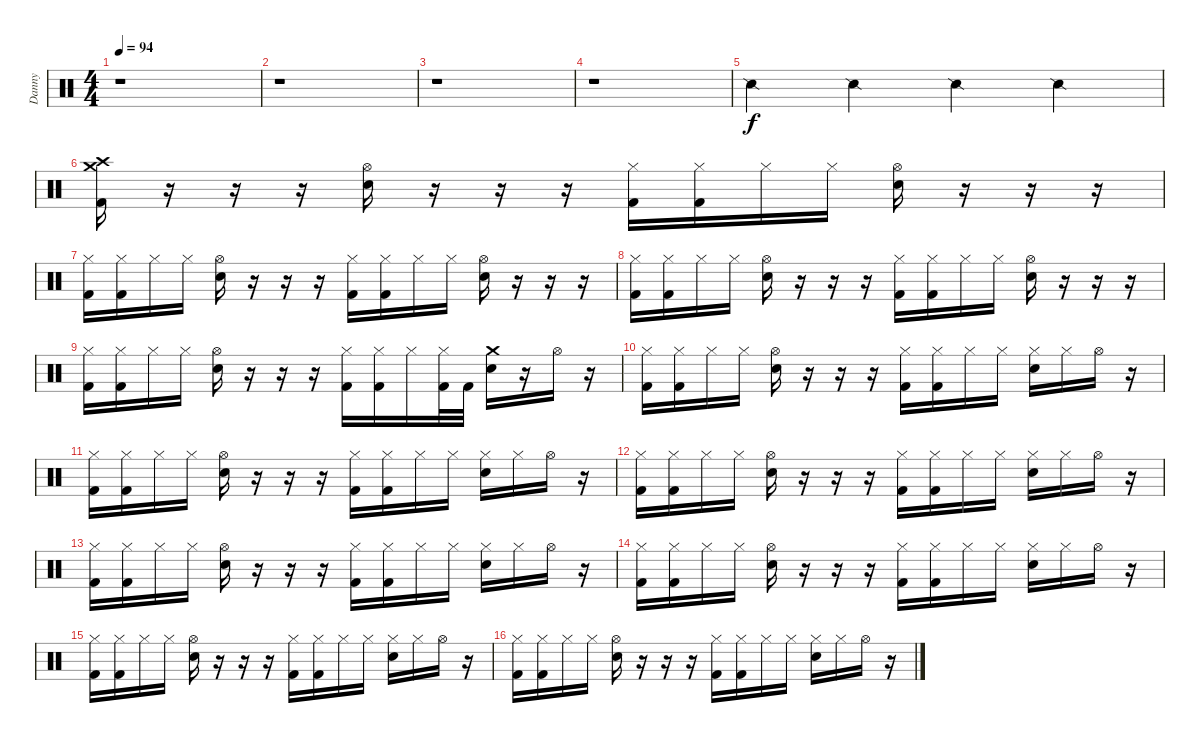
\track ("Danny" "Danny") {instrument percussion}
\staff {score}
\articulation defaults
\ts (4 4)
\tempo 94
\clef neutral
\ks c
r.1{dy f} |
r.1 |
r.1 |
r.1 |
"Snare (side stick) 2".4 "Snare (side stick) 2".4 "Snare (side stick) 2".4 "Snare (side stick) 2".4 |
("Crash medium (hit)" "Crash high (hit)" "Kick (hit) 2").16 r.16 r.16 r.16 ("Hi-Hat (open)" "Electric Snare (hit)").16 r.16 r.16 r.16 ("Hi-Hat (closed)" "Kick (hit) 2").16 ("Hi-Hat (closed)" "Kick (hit) 2").16 "Hi-Hat (closed)".16 "Hi-Hat (closed)".16 ("Hi-Hat (open)" "Electric Snare (hit)").16 r.16 r.16 r.16 |
("Hi-Hat (closed)" "Kick (hit) 2").16 ("Hi-Hat (closed)" "Kick (hit) 2").16 "Hi-Hat (closed)".16 "Hi-Hat (closed)".16 ("Hi-Hat (open)" "Electric Snare (hit)").16 r.16 r.16 r.16 ("Hi-Hat (closed)" "Kick (hit) 2").16 ("Hi-Hat (closed)" "Kick (hit) 2").16 "Hi-Hat (closed)".16 "Hi-Hat (closed)".16 ("Hi-Hat (open)" "Electric Snare (hit)").16 r.16 r.16 r.16 |
("Hi-Hat (closed)" "Kick (hit) 2").16 ("Hi-Hat (closed)" "Kick (hit) 2").16 "Hi-Hat (closed)".16 "Hi-Hat (closed)".16 ("Hi-Hat (open)" "Electric Snare (hit)").16 r.16 r.16 r.16 ("Hi-Hat (closed)" "Kick (hit) 2").16 ("Hi-Hat (closed)" "Kick (hit) 2").16 "Hi-Hat (closed)".16 "Hi-Hat (closed)".16 ("Hi-Hat (open)" "Electric Snare (hit)").16 r.16 r.16 r.16 |
("Hi-Hat (closed)" "Kick (hit) 2").16 ("Hi-Hat (closed)" "Kick (hit) 2").16 "Hi-Hat (closed)".16 "Hi-Hat (closed)".16 ("Hi-Hat (open)" "Electric Snare (hit)").16 r.16 r.16 r.16 ("Hi-Hat (closed)" "Kick (hit) 2").16 ("Hi-Hat (closed)" "Kick (hit) 2").16 "Hi-Hat (closed)".16 ("Hi-Hat (closed)" "Kick (hit) 2").32 "Kick (hit) 2".32 ("Crash medium (hit)" "Electric Snare (hit)").16 r.16 "Hi-Hat (open)".16 r.16 |
("Hi-Hat (closed)" "Kick (hit) 2").16 ("Hi-Hat (closed)" "Kick (hit) 2").16 "Hi-Hat (closed)".16 "Hi-Hat (closed)".16 ("Hi-Hat (open)" "Electric Snare (hit)").16 r.16 r.16 r.16 ("Hi-Hat (closed)" "Kick (hit) 2").16 ("Hi-Hat (closed)" "Kick (hit) 2").16 "Hi-Hat (closed)".16 "Hi-Hat (closed)".16 ("Hi-Hat (closed)" "Electric Snare (hit)").16 "Hi-Hat (closed)".16 "Hi-Hat (open)".16 r.16 |
("Hi-Hat (closed)" "Kick (hit) 2").16 ("Hi-Hat (closed)" "Kick (hit) 2").16 "Hi-Hat (closed)".16 "Hi-Hat (closed)".16 ("Hi-Hat (open)" "Electric Snare (hit)").16 r.16 r.16 r.16 ("Hi-Hat (closed)" "Kick (hit) 2").16 ("Hi-Hat (closed)" "Kick (hit) 2").16 "Hi-Hat (closed)".16 "Hi-Hat (closed)".16 ("Hi-Hat (closed)" "Electric Snare (hit)").16 "Hi-Hat (closed)".16 "Hi-Hat (open)".16 r.16 |
("Hi-Hat (closed)" "Kick (hit) 2").16 ("Hi-Hat (closed)" "Kick (hit) 2").16 "Hi-Hat (closed)".16 "Hi-Hat (closed)".16 ("Hi-Hat (open)" "Electric Snare (hit)").16 r.16 r.16 r.16 ("Hi-Hat (closed)" "Kick (hit) 2").16 ("Hi-Hat (closed)" "Kick (hit) 2").16 "Hi-Hat (closed)".16 "Hi-Hat (closed)".16 ("Hi-Hat (closed)" "Electric Snare (hit)").16 "Hi-Hat (closed)".16 "Hi-Hat (open)".16 r.16 |
("Hi-Hat (closed)" "Kick (hit) 2").16 ("Hi-Hat (closed)" "Kick (hit) 2").16 "Hi-Hat (closed)".16 "Hi-Hat (closed)".16 ("Hi-Hat (open)" "Electric Snare (hit)").16 r.16 r.16 r.16 ("Hi-Hat (closed)" "Kick (hit) 2").16 ("Hi-Hat (closed)" "Kick (hit) 2").16 "Hi-Hat (closed)".16 "Hi-Hat (closed)".16 ("Hi-Hat (closed)" "Electric Snare (hit)").16 "Hi-Hat (closed)".16 "Hi-Hat (open)".16 r.16 |
("Hi-Hat (closed)" "Kick (hit) 2").16 ("Hi-Hat (closed)" "Kick (hit) 2").16 "Hi-Hat (closed)".16 "Hi-Hat (closed)".16 ("Hi-Hat (open)" "Electric Snare (hit)").16 r.16 r.16 r.16 ("Hi-Hat (closed)" "Kick (hit) 2").16 ("Hi-Hat (closed)" "Kick (hit) 2").16 "Hi-Hat (closed)".16 "Hi-Hat (closed)".16 ("Hi-Hat (closed)" "Electric Snare (hit)").16 "Hi-Hat (closed)".16 "Hi-Hat (open)".16 r.16 |
("Hi-Hat (closed)" "Kick (hit) 2").16 ("Hi-Hat (closed)" "Kick (hit) 2").16 "Hi-Hat (closed)".16 "Hi-Hat (closed)".16 ("Hi-Hat (open)" "Electric Snare (hit)").16 r.16 r.16 r.16 ("Hi-Hat (closed)" "Kick (hit) 2").16 ("Hi-Hat (closed)" "Kick (hit) 2").16 "Hi-Hat (closed)".16 "Hi-Hat (closed)".16 ("Hi-Hat (closed)" "Electric Snare (hit)").16 "Hi-Hat (closed)".16 "Hi-Hat (open)".16 r.16 |
("Hi-Hat (closed)" "Kick (hit) 2").16 ("Hi-Hat (closed)" "Kick (hit) 2").16 "Hi-Hat (closed)".16 "Hi-Hat (closed)".16 ("Hi-Hat (open)" "Electric Snare (hit)").16 r.16 r.16 r.16 ("Hi-Hat (closed)" "Kick (hit) 2").16 ("Hi-Hat (closed)" "Kick (hit) 2").16 "Hi-Hat (closed)".16 "Hi-Hat (closed)".16 ("Hi-Hat (closed)" "Electric Snare (hit)").16 "Hi-Hat (closed)".16 "Hi-Hat (open)".16 r.16
